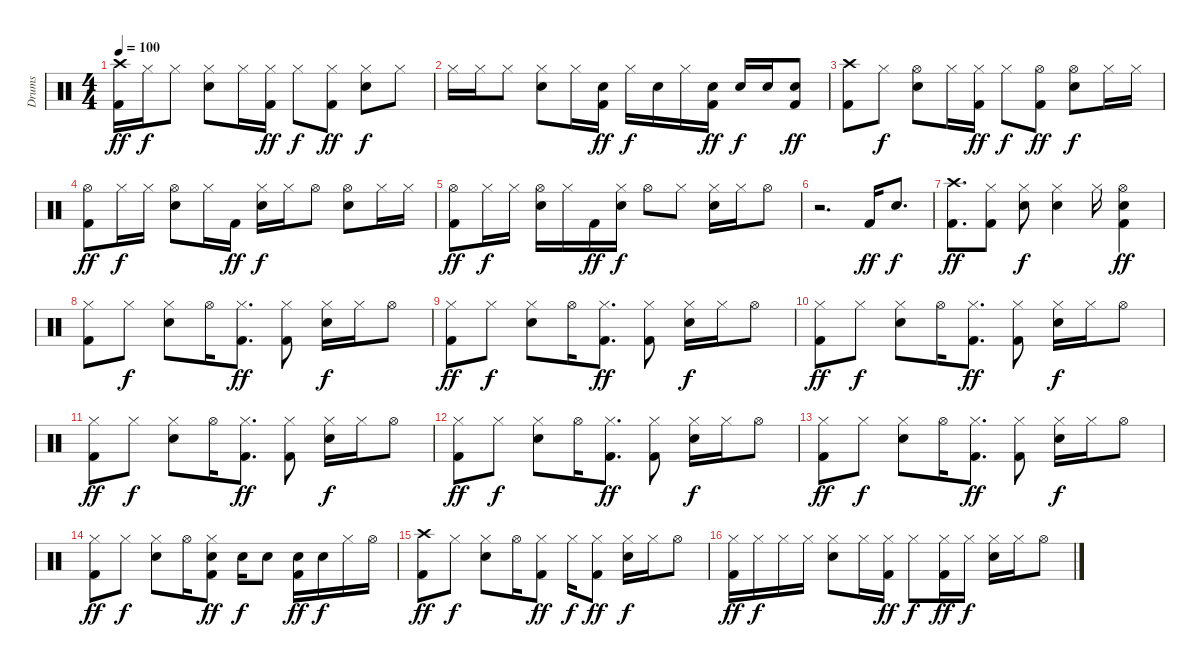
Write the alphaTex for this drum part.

\track ("Drums" "Drums") {instrument percussion}
\staff {score}
\articulation defaults
\ts (4 4)
\tempo 100
\clef neutral
\ks c
("Crash high (hit)" "Kick (hit) 2").16{dy ff} "Hi-Hat (closed)".16{dy f} "Hi-Hat (closed)".8 ("Hi-Hat (closed)" "Snare (hit) 2").8 "Hi-Hat (closed)".16 ("Hi-Hat (closed)" "Kick (hit) 2").16{dy ff} "Hi-Hat (closed)".8{dy f} ("Hi-Hat (closed)" "Kick (hit) 2").8{dy ff} ("Hi-Hat (closed)" "Snare (hit) 2").8{dy f} "Hi-Hat (closed)".8 |
"Hi-Hat (closed)".16 "Hi-Hat (closed)".16 "Hi-Hat (closed)".8 ("Hi-Hat (closed)" "Snare (hit) 2").8 "Hi-Hat (closed)".16 ("Snare (hit) 2" "Kick (hit) 2").16{dy ff} "Hi-Hat (closed)".16{dy f} "Snare (hit) 2".16 "Hi-Hat (closed)".16 ("Snare (hit) 2" "Kick (hit) 2").16{dy ff} "Snare (hit) 2".16{dy f} "Snare (hit) 2".16 ("Snare (hit) 2" "Kick (hit) 2").8{dy ff} |
("Crash high (hit)" "Kick (hit) 2").8 "Hi-Hat (closed)".8{dy f} ("Hi-Hat (open)" "Snare (hit) 2").8 "Hi-Hat (closed)".16 ("Hi-Hat (closed)" "Kick (hit) 2").16{dy ff} "Hi-Hat (closed)".8{dy f} ("Hi-Hat (open)" "Kick (hit) 2").8{dy ff} ("Hi-Hat (open)" "Snare (hit) 2").8{dy f} "Hi-Hat (closed)".16 "Hi-Hat (closed)".16 |
("Hi-Hat (open)" "Kick (hit) 2").8{dy ff} "Hi-Hat (closed)".16{dy f} "Hi-Hat (closed)".16 ("Hi-Hat (open)" "Snare (hit) 2").8 "Hi-Hat (closed)".16 "Kick (hit) 2".16{dy ff} ("Hi-Hat (closed)" "Snare (hit) 2").16{dy f} "Hi-Hat (closed)".16 "Hi-Hat (open)".8 ("Hi-Hat (open)" "Snare (hit) 2").8 "Hi-Hat (closed)".16 "Hi-Hat (closed)".16 |
("Hi-Hat (open)" "Kick (hit) 2").8{dy ff} "Hi-Hat (closed)".16{dy f} "Hi-Hat (closed)".16 ("Hi-Hat (open)" "Snare (hit) 2").16 "Hi-Hat (closed)".16 "Kick (hit) 2".16{dy ff} ("Hi-Hat (closed)" "Snare (hit) 2").16{dy f} "Hi-Hat (open)".8 "Hi-Hat (closed)".8 ("Hi-Hat (closed)" "Snare (hit) 2").16 "Hi-Hat (closed)".16 "Hi-Hat (open)".8 |
r.2{d} "Kick (hit) 2".16{dy ff} "Snare (hit) 2".8{d dy f} |
("Crash high (hit)" "Kick (hit) 2").8{d dy ff} ("Hi-Hat (closed)" "Kick (hit) 2").8 ("Hi-Hat (closed)" "Snare (hit) 2").8{dy f} ("Hi-Hat (closed)" "Snare (hit) 2").4 "Hi-Hat (closed)".16 ("Hi-Hat (open)" "Snare (hit) 2" "Kick (hit) 2").4{dy ff} |
("Hi-Hat (closed)" "Kick (hit) 2").8 "Hi-Hat (closed)".8{dy f} ("Hi-Hat (closed)" "Snare (hit) 2").8 "Hi-Hat (open)".16 ("Hi-Hat (closed)" "Kick (hit) 2").8{d dy ff} ("Hi-Hat (closed)" "Kick (hit) 2").8 ("Hi-Hat (closed)" "Snare (hit) 2").16{dy f} "Hi-Hat (closed)".16 "Hi-Hat (open)".8 |
("Hi-Hat (closed)" "Kick (hit) 2").8{dy ff} "Hi-Hat (closed)".8{dy f} ("Hi-Hat (closed)" "Snare (hit) 2").8 "Hi-Hat (open)".16 ("Hi-Hat (closed)" "Kick (hit) 2").8{d dy ff} ("Hi-Hat (closed)" "Kick (hit) 2").8 ("Hi-Hat (closed)" "Snare (hit) 2").16{dy f} "Hi-Hat (closed)".16 "Hi-Hat (open)".8 |
("Hi-Hat (closed)" "Kick (hit) 2").8{dy ff} "Hi-Hat (closed)".8{dy f} ("Hi-Hat (closed)" "Snare (hit) 2").8 "Hi-Hat (open)".16 ("Hi-Hat (closed)" "Kick (hit) 2").8{d dy ff} ("Hi-Hat (closed)" "Kick (hit) 2").8 ("Hi-Hat (closed)" "Snare (hit) 2").16{dy f} "Hi-Hat (closed)".16 "Hi-Hat (open)".8 |
("Hi-Hat (closed)" "Kick (hit) 2").8{dy ff} "Hi-Hat (closed)".8{dy f} ("Hi-Hat (closed)" "Snare (hit) 2").8 "Hi-Hat (open)".16 ("Hi-Hat (closed)" "Kick (hit) 2").8{d dy ff} ("Hi-Hat (closed)" "Kick (hit) 2").8 ("Hi-Hat (closed)" "Snare (hit) 2").16{dy f} "Hi-Hat (closed)".16 "Hi-Hat (open)".8 |
("Hi-Hat (closed)" "Kick (hit) 2").8{dy ff} "Hi-Hat (closed)".8{dy f} ("Hi-Hat (closed)" "Snare (hit) 2").8 "Hi-Hat (open)".16 ("Hi-Hat (closed)" "Kick (hit) 2").8{d dy ff} ("Hi-Hat (closed)" "Kick (hit) 2").8 ("Hi-Hat (closed)" "Snare (hit) 2").16{dy f} "Hi-Hat (closed)".16 "Hi-Hat (open)".8 |
("Hi-Hat (closed)" "Kick (hit) 2").8{dy ff} "Hi-Hat (closed)".8{dy f} ("Hi-Hat (closed)" "Snare (hit) 2").8 "Hi-Hat (open)".16 ("Hi-Hat (closed)" "Kick (hit) 2").8{d dy ff} ("Hi-Hat (closed)" "Kick (hit) 2").8 ("Hi-Hat (closed)" "Snare (hit) 2").16{dy f} "Hi-Hat (closed)".16 "Hi-Hat (open)".8 |
("Hi-Hat (closed)" "Kick (hit) 2").8{dy ff} "Hi-Hat (closed)".8{dy f} ("Hi-Hat (closed)" "Snare (hit) 2").8 "Hi-Hat (open)".16 ("Hi-Hat (closed)" "Snare (hit) 2" "Kick (hit) 2").8{dy ff} "Snare (hit) 2".16{dy f} "Snare (hit) 2".8 ("Snare (hit) 2" "Kick (hit) 2").16{dy ff} "Snare (hit) 2".16{dy f} "Hi-Hat (closed)".16 "Hi-Hat (open)".16 |
("Crash high (hit)" "Kick (hit) 2").8{dy ff} "Hi-Hat (closed)".8{dy f} ("Hi-Hat (closed)" "Snare (hit) 2").8 "Hi-Hat (open)".16 ("Hi-Hat (closed)" "Kick (hit) 2").8{dy ff} "Hi-Hat (closed)".16{dy f} ("Hi-Hat (closed)" "Kick (hit) 2").8{dy ff} ("Hi-Hat (closed)" "Snare (hit) 2").16{dy f} "Hi-Hat (closed)".16 "Hi-Hat (open)".8 |
("Hi-Hat (closed)" "Kick (hit) 2").16{dy ff} "Hi-Hat (closed)".16{dy f} "Hi-Hat (closed)".16 "Hi-Hat (closed)".16 ("Hi-Hat (closed)" "Snare (hit) 2").8 "Hi-Hat (closed)".16 ("Hi-Hat (closed)" "Kick (hit) 2").16{dy ff} "Hi-Hat (closed)".8{dy f} ("Hi-Hat (closed)" "Kick (hit) 2").16{dy ff} "Hi-Hat (closed)".16{dy f} ("Hi-Hat (closed)" "Snare (hit) 2").16 "Hi-Hat (closed)".16 "Hi-Hat (open)".8
